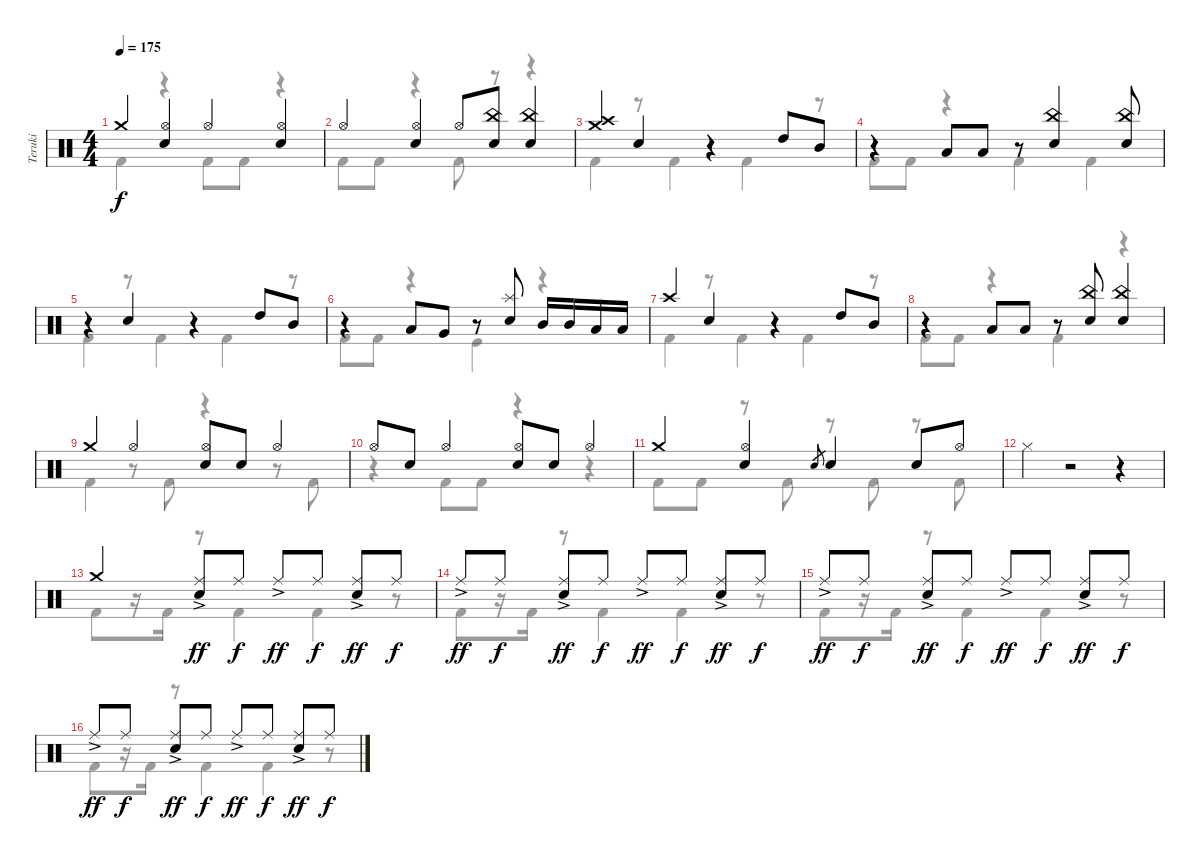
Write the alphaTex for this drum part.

\track ("Teruki" "Teruki") {instrument percussion}
\staff {score}
\articulation defaults
\voice
\ts (4 4)
\tempo 175
\clef neutral
\ks c "Crash medium (hit)".4{dy f}
("Hi-Hat (open)" "Snare (hit) 2").4 "Hi-Hat (open)".4 ("Hi-Hat (open)" "Snare (hit) 2").4 |
"Hi-Hat (open)".4 ("Hi-Hat (open)" "Snare (hit) 2").4 "Hi-Hat (open)".8 ("China (hit)" "Snare (hit) 2").8 ("China (hit)" "Snare (hit) 2").4 |
("Crash medium (hit)" "Crash high (hit)").4 "Snare (hit) 2".4 r.4 "High Tom (hit)".8 "Mid Tom (hit)".8 |
r.4 "Low Tom (hit)".8 "Low Tom (hit)".8 r.8 ("China (hit)" "Snare (hit) 2").4 ("China (hit)" "Snare (hit) 2").8 |
r.4 "Snare (hit) 2".4 r.4 "High Tom (hit)".8 "Mid Tom (hit)".8 |
r.4 "Low Tom (hit)".8 "Very Low Tom (hit)".8 r.8 ("Splash (hit)" "Snare (hit) 2").8 "Mid Tom (hit)".16 "Mid Tom (hit)".16 "Low Tom (hit)".16 "Low Tom (hit)".16 |
"Crash high (hit)".4 "Snare (hit) 2".4 r.4 "High Tom (hit)".8 "Mid Tom (hit)".8 |
r.4 "Low Tom (hit)".8 "Low Tom (hit)".8 r.8 ("China (hit)" "Snare (hit) 2").8 ("China (hit)" "Snare (hit) 2").4 |
"Crash medium (hit)".4 "Hi-Hat (open)".4 ("Hi-Hat (open)" "Snare (hit) 2").8 "Snare (hit) 2".8 "Hi-Hat (open)".4 |
"Hi-Hat (open)".8 "Snare (hit) 2".8 "Hi-Hat (open)".4 ("Hi-Hat (open)" "Snare (hit) 2").8 "Snare (hit) 2".8 "Hi-Hat (open)".4 |
"Crash medium (hit)".4 ("Hi-Hat (open)" "Snare (hit) 2").4 "Snare (hit) 2".8{gr} "Snare (hit) 2".4 "Snare (hit) 2".8 "Hi-Hat (open)".8 |
"Hi-Hat (closed)".4 r.2 r.4 |
"Crash medium (hit)".4 ("Ride (middle)"{ac} "Snare (hit) 2").8{dy ff} "Ride (middle)".8{dy f} "Ride (middle)"{ac}.8{dy ff} "Ride (middle)".8{dy f} ("Ride (middle)"{ac} "Snare (hit) 2").8{dy ff} "Ride (middle)".8{dy f} |
"Ride (middle)"{ac}.8{dy ff} "Ride (middle)".8{dy f} ("Ride (middle)"{ac} "Snare (hit) 2").8{dy ff} "Ride (middle)".8{dy f} "Ride (middle)"{ac}.8{dy ff} "Ride (middle)".8{dy f} ("Ride (middle)"{ac} "Snare (hit) 2").8{dy ff} "Ride (middle)".8{dy f} |
"Ride (middle)"{ac}.8{dy ff} "Ride (middle)".8{dy f} ("Ride (middle)"{ac} "Snare (hit) 2").8{dy ff} "Ride (middle)".8{dy f} "Ride (middle)"{ac}.8{dy ff} "Ride (middle)".8{dy f} ("Ride (middle)"{ac} "Snare (hit) 2").8{dy ff} "Ride (middle)".8{dy f} |
"Ride (middle)"{ac}.8{dy ff} "Ride (middle)".8{dy f} ("Ride (middle)"{ac} "Snare (hit) 2").8{dy ff} "Ride (middle)".8{dy f} "Ride (middle)"{ac}.8{dy ff} "Ride (middle)".8{dy f} ("Ride (middle)"{ac} "Snare (hit) 2").8{dy ff} "Ride (middle)".8{dy f}
\voice
\clef neutral
\ottava regular
\simile none
\ks c "Kick (hit) 2".4{dy f}
r.4 "Kick (hit) 2".8 "Kick (hit) 2".8 r.4 |
"Kick (hit) 2".8 "Kick (hit) 2".8 r.4 "Kick (hit) 2".8 r.8 r.4 |
"Kick (hit) 2".4 r.8 "Kick (hit) 2".4 "Kick (hit) 2".4 r.8 |
"Kick (hit) 2".8 "Kick (hit) 2".8 r.4 "Kick (hit) 2".4 "Kick (hit) 2".4 |
"Kick (hit) 2".4 r.8 "Kick (hit) 2".4 "Kick (hit) 2".4 r.8 |
"Kick (hit) 2".8 "Kick (hit) 2".8 r.4 "Kick (hit)".4 r.4 |
"Kick (hit) 2".4 r.8 "Kick (hit) 2".4 "Kick (hit) 2".4 r.8 |
"Kick (hit) 2".8 "Kick (hit) 2".8 r.4 "Kick (hit) 2".4 r.4 |
"Kick (hit) 2".4 r.8 "Kick (hit) 2".8 r.4 r.8 "Kick (hit) 2".8 |
r.4 "Kick (hit) 2".8 "Kick (hit) 2".8 r.4 r.4 |
"Kick (hit) 2".8 "Kick (hit) 2".8 r.8 "Kick (hit) 2".8 r.8 "Kick (hit) 2".8 r.8 "Kick (hit) 2".8 |
|
"Kick (hit) 2".8 r.16 "Kick (hit) 2".16 r.8 "Kick (hit) 2".4 "Kick (hit) 2".4 r.8 |
"Kick (hit) 2".8 r.16 "Kick (hit) 2".16 r.8 "Kick (hit) 2".4 "Kick (hit) 2".4 r.8 |
"Kick (hit) 2".8 r.16 "Kick (hit) 2".16 r.8 "Kick (hit) 2".4 "Kick (hit) 2".4 r.8 |
"Kick (hit) 2".8 r.16 "Kick (hit) 2".16 r.8 "Kick (hit) 2".4 "Kick (hit) 2".4 r.8
